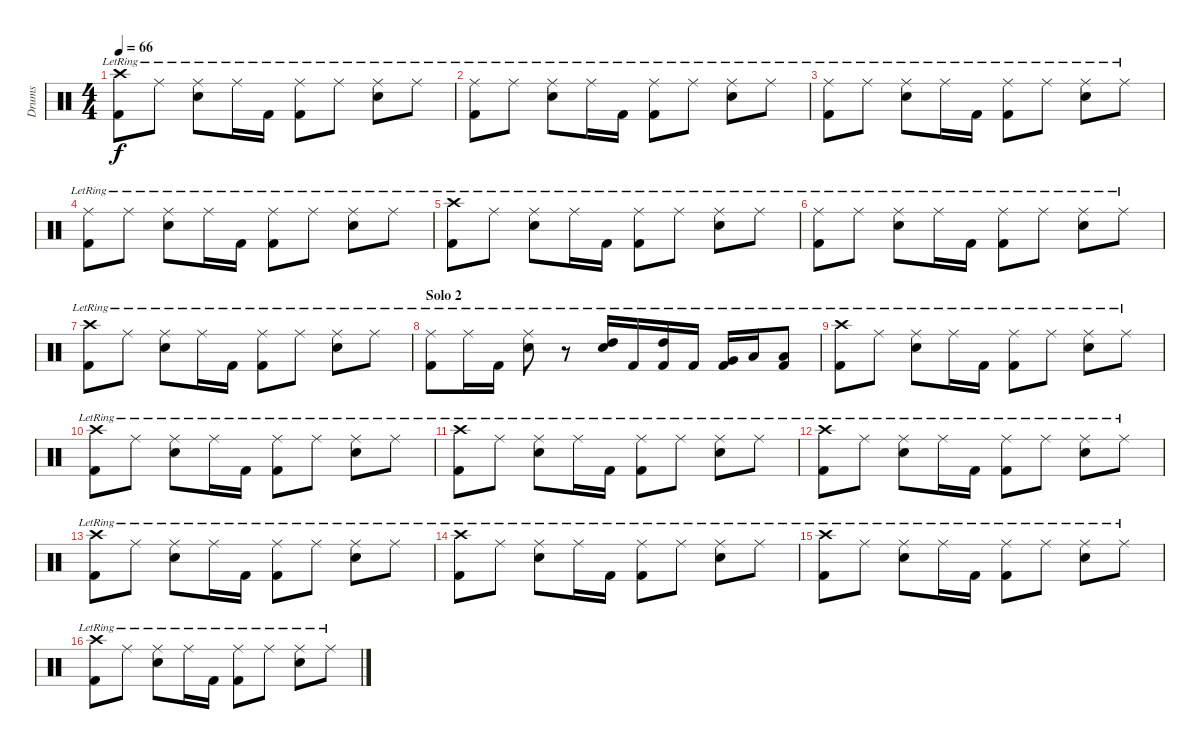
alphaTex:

\track ("Drums" "Drums") {instrument percussion}
\staff {score}
\articulation defaults
\ts (4 4)
\tempo 66
\clef neutral
\ks c
("Crash high (hit)"{lr} "Kick (hit) 2"{lr}).8{dy f} "Ride (middle)"{lr}.8 ("Snare (hit) 2"{lr} "Ride (middle)"{lr}).8 "Ride (middle)"{lr}.16 "Kick (hit) 2"{lr}.16 ("Kick (hit) 2"{lr} "Ride (middle)"{lr}).8 "Ride (middle)"{lr}.8 ("Snare (hit) 2"{lr} "Ride (middle)"{lr}).8 "Ride (middle)"{lr}.8 |
("Ride (middle)"{lr} "Kick (hit) 2"{lr}).8 "Ride (middle)"{lr}.8 ("Snare (hit) 2"{lr} "Ride (middle)"{lr}).8 "Ride (middle)"{lr}.16 "Kick (hit) 2"{lr}.16 ("Kick (hit) 2"{lr} "Ride (middle)"{lr}).8 "Ride (middle)"{lr}.8 ("Snare (hit) 2"{lr} "Ride (middle)"{lr}).8 "Ride (middle)"{lr}.8 |
("Ride (middle)"{lr} "Kick (hit) 2"{lr}).8 "Ride (middle)"{lr}.8 ("Snare (hit) 2"{lr} "Ride (middle)"{lr}).8 "Ride (middle)"{lr}.16 "Kick (hit) 2"{lr}.16 ("Kick (hit) 2"{lr} "Ride (middle)"{lr}).8 "Ride (middle)"{lr}.8 ("Snare (hit) 2"{lr} "Ride (middle)"{lr}).8 "Ride (middle)"{lr}.8 |
("Ride (middle)"{lr} "Kick (hit) 2"{lr}).8 "Ride (middle)"{lr}.8 ("Snare (hit) 2"{lr} "Ride (middle)"{lr}).8 "Ride (middle)"{lr}.16 "Kick (hit) 2"{lr}.16 ("Kick (hit) 2"{lr} "Ride (middle)"{lr}).8 "Ride (middle)"{lr}.8 ("Snare (hit) 2"{lr} "Ride (middle)"{lr}).8 "Ride (middle)"{lr}.8 |
("Crash high (hit)"{lr} "Kick (hit) 2"{lr}).8 "Ride (middle)"{lr}.8 ("Snare (hit) 2"{lr} "Ride (middle)"{lr}).8 "Ride (middle)"{lr}.16 "Kick (hit) 2"{lr}.16 ("Kick (hit) 2"{lr} "Ride (middle)"{lr}).8 "Ride (middle)"{lr}.8 ("Snare (hit) 2"{lr} "Ride (middle)"{lr}).8 "Ride (middle)"{lr}.8 |
("Ride (middle)"{lr} "Kick (hit) 2"{lr}).8 "Ride (middle)"{lr}.8 ("Snare (hit) 2"{lr} "Ride (middle)"{lr}).8 "Ride (middle)"{lr}.16 "Kick (hit) 2"{lr}.16 ("Kick (hit) 2"{lr} "Ride (middle)"{lr}).8 "Ride (middle)"{lr}.8 ("Snare (hit) 2"{lr} "Ride (middle)"{lr}).8 "Ride (middle)"{lr}.8 |
("Crash high (hit)"{lr} "Kick (hit) 2"{lr}).8 "Ride (middle)"{lr}.8 ("Snare (hit) 2"{lr} "Ride (middle)"{lr}).8 "Ride (middle)"{lr}.16 "Kick (hit) 2"{lr}.16 ("Kick (hit) 2"{lr} "Ride (middle)"{lr}).8 "Ride (middle)"{lr}.8 ("Snare (hit) 2"{lr} "Ride (middle)"{lr}).8 "Ride (middle)"{lr}.8 |
\section ("" "Solo 2")
("Kick (hit) 2"{lr} "Ride (middle)"{lr}).8 "Ride (middle)"{lr}.16 "Kick (hit) 2"{lr}.16 ("Snare (hit) 2"{lr} "Ride (middle)"{lr}).8 r.8 ("Snare (hit) 2"{lr} "High Tom (hit)"{lr}).16 "Kick (hit) 2"{lr}.16 ("Kick (hit) 2"{lr} "High Tom (hit)"{lr}).16 "Kick (hit) 2"{lr}.16 ("Kick (hit) 2"{lr} "Very Low Tom (hit)"{lr}).16 "Low Floor Tom (hit)"{lr}.16 ("Kick (hit) 2"{lr} "Low Floor Tom (hit)"{lr}).8 |
("Crash high (hit)"{lr} "Kick (hit) 2"{lr}).8 "Ride (middle)"{lr}.8 ("Snare (hit) 2"{lr} "Ride (middle)"{lr}).8 "Ride (middle)"{lr}.16 "Kick (hit) 2"{lr}.16 ("Kick (hit) 2"{lr} "Ride (middle)"{lr}).8 "Ride (middle)"{lr}.8 ("Snare (hit) 2"{lr} "Ride (middle)"{lr}).8 "Ride (middle)"{lr}.8 |
("Crash high (hit)"{lr} "Kick (hit) 2"{lr}).8 "Ride (middle)"{lr}.8 ("Snare (hit) 2"{lr} "Ride (middle)"{lr}).8 "Ride (middle)"{lr}.16 "Kick (hit) 2"{lr}.16 ("Kick (hit) 2"{lr} "Ride (middle)"{lr}).8 "Ride (middle)"{lr}.8 ("Snare (hit) 2"{lr} "Ride (middle)"{lr}).8 "Ride (middle)"{lr}.8 |
("Crash high (hit)"{lr} "Kick (hit) 2"{lr}).8 "Ride (middle)"{lr}.8 ("Snare (hit) 2"{lr} "Ride (middle)"{lr}).8 "Ride (middle)"{lr}.16 "Kick (hit) 2"{lr}.16 ("Kick (hit) 2"{lr} "Ride (middle)"{lr}).8 "Ride (middle)"{lr}.8 ("Snare (hit) 2"{lr} "Ride (middle)"{lr}).8 "Ride (middle)"{lr}.8 |
("Crash high (hit)"{lr} "Kick (hit) 2"{lr}).8 "Ride (middle)"{lr}.8 ("Snare (hit) 2"{lr} "Ride (middle)"{lr}).8 "Ride (middle)"{lr}.16 "Kick (hit) 2"{lr}.16 ("Kick (hit) 2"{lr} "Ride (middle)"{lr}).8 "Ride (middle)"{lr}.8 ("Snare (hit) 2"{lr} "Ride (middle)"{lr}).8 "Ride (middle)"{lr}.8 |
("Crash high (hit)"{lr} "Kick (hit) 2"{lr}).8 "Ride (middle)"{lr}.8 ("Snare (hit) 2"{lr} "Ride (middle)"{lr}).8 "Ride (middle)"{lr}.16 "Kick (hit) 2"{lr}.16 ("Kick (hit) 2"{lr} "Ride (middle)"{lr}).8 "Ride (middle)"{lr}.8 ("Snare (hit) 2"{lr} "Ride (middle)"{lr}).8 "Ride (middle)"{lr}.8 |
("Crash high (hit)"{lr} "Kick (hit) 2"{lr}).8 "Ride (middle)"{lr}.8 ("Snare (hit) 2"{lr} "Ride (middle)"{lr}).8 "Ride (middle)"{lr}.16 "Kick (hit) 2"{lr}.16 ("Kick (hit) 2"{lr} "Ride (middle)"{lr}).8 "Ride (middle)"{lr}.8 ("Snare (hit) 2"{lr} "Ride (middle)"{lr}).8 "Ride (middle)"{lr}.8 |
("Crash high (hit)"{lr} "Kick (hit) 2"{lr}).8 "Ride (middle)"{lr}.8 ("Snare (hit) 2"{lr} "Ride (middle)"{lr}).8 "Ride (middle)"{lr}.16 "Kick (hit) 2"{lr}.16 ("Kick (hit) 2"{lr} "Ride (middle)"{lr}).8 "Ride (middle)"{lr}.8 ("Snare (hit) 2"{lr} "Ride (middle)"{lr}).8 "Ride (middle)"{lr}.8 |
("Crash high (hit)"{lr} "Kick (hit) 2"{lr}).8 "Ride (middle)"{lr}.8 ("Snare (hit) 2"{lr} "Ride (middle)"{lr}).8 "Ride (middle)"{lr}.16 "Kick (hit) 2"{lr}.16 ("Kick (hit) 2"{lr} "Ride (middle)"{lr}).8 "Ride (middle)"{lr}.8 ("Snare (hit) 2"{lr} "Ride (middle)"{lr}).8 "Ride (middle)"{lr}.8
